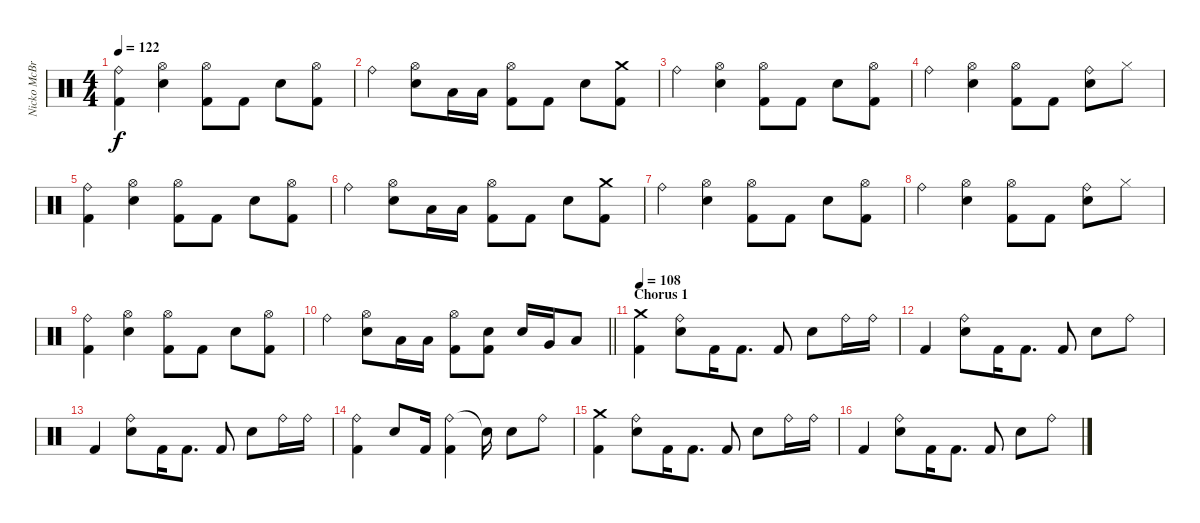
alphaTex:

\track ("Nicko McBrain" "Nicko McBr") {instrument percussion}
\staff {score}
\articulation defaults
\ts (4 4)
\tempo 122
\clef neutral
\ks c
("Ride (bell)" "Kick (hit) 2").4{dy f} ("Hi-Hat (open)" "Electric Snare (hit)").4 ("Hi-Hat (open)" "Kick (hit) 2").8 "Kick (hit) 2".8 "Electric Snare (hit)".8 ("Hi-Hat (open)" "Kick (hit) 2").8 |
"Ride (bell)".4 ("Hi-Hat (open)" "Electric Snare (hit)").8 "Low Tom (hit)".16 "Low Tom (hit)".16 ("Hi-Hat (open)" "Kick (hit) 2").8 "Kick (hit) 2".8 "Electric Snare (hit)".8 ("Crash medium (hit)" "Kick (hit) 2").8 |
"Ride (bell)".4 ("Hi-Hat (open)" "Electric Snare (hit)").4 ("Hi-Hat (open)" "Kick (hit) 2").8 "Kick (hit) 2".8 "Electric Snare (hit)".8 ("Hi-Hat (open)" "Kick (hit) 2").8 |
"Ride (bell)".4 ("Hi-Hat (open)" "Electric Snare (hit)").4 ("Hi-Hat (open)" "Kick (hit) 2").8 "Kick (hit) 2".8 ("Ride (bell)" "Electric Snare (hit)").8 "Hi-Hat (closed)".8 |
("Ride (bell)" "Kick (hit) 2").4 ("Hi-Hat (open)" "Electric Snare (hit)").4 ("Hi-Hat (open)" "Kick (hit) 2").8 "Kick (hit) 2".8 "Electric Snare (hit)".8 ("Hi-Hat (open)" "Kick (hit) 2").8 |
"Ride (bell)".4 ("Hi-Hat (open)" "Electric Snare (hit)").8 "Low Tom (hit)".16 "Low Tom (hit)".16 ("Hi-Hat (open)" "Kick (hit) 2").8 "Kick (hit) 2".8 "Electric Snare (hit)".8 ("Crash medium (hit)" "Kick (hit) 2").8 |
"Ride (bell)".4 ("Hi-Hat (open)" "Electric Snare (hit)").4 ("Hi-Hat (open)" "Kick (hit) 2").8 "Kick (hit) 2".8 "Electric Snare (hit)".8 ("Hi-Hat (open)" "Kick (hit) 2").8 |
"Ride (bell)".4 ("Hi-Hat (open)" "Electric Snare (hit)").4 ("Hi-Hat (open)" "Kick (hit) 2").8 "Kick (hit) 2".8 ("Ride (bell)" "Electric Snare (hit)").8 "Hi-Hat (closed)".8 |
("Ride (bell)" "Kick (hit) 2").4 ("Hi-Hat (open)" "Electric Snare (hit)").4 ("Hi-Hat (open)" "Kick (hit) 2").8 "Kick (hit) 2".8 "Electric Snare (hit)".8 ("Hi-Hat (open)" "Kick (hit) 2").8 |
\barLineRight lightlight "Ride (bell)".4
("Hi-Hat (open)" "Electric Snare (hit)").8 "Low Tom (hit)".16 "Low Tom (hit)".16 ("Hi-Hat (open)" "Kick (hit) 2").8 ("Electric Snare (hit)" "Kick (hit) 2").8 "Electric Snare (hit)".16 "Very Low Tom (hit)".16 "Low Floor Tom (hit)".8 |
\section ("" "Chorus 1")
\tempo 108
("Crash medium (hit)" "Kick (hit) 2").4 ("Ride (bell)" "Electric Snare (hit)").8 "Kick (hit) 2".16 "Kick (hit) 2".8{d} "Kick (hit) 2".8 "Electric Snare (hit)".8 "Ride (bell)".16 "Ride (bell)".16 |
"Kick (hit) 2".4 ("Ride (bell)" "Electric Snare (hit)").8 "Kick (hit) 2".16 "Kick (hit) 2".8{d} "Kick (hit) 2".8 "Electric Snare (hit)".8 "Ride (bell)".8 |
"Kick (hit) 2".4 ("Ride (bell)" "Electric Snare (hit)").8 "Kick (hit) 2".16 "Kick (hit) 2".8{d} "Kick (hit) 2".8 "Electric Snare (hit)".8 "Ride (bell)".16 "Ride (bell)".16 |
("Ride (bell)" "Kick (hit) 2").4 "Electric Snare (hit)".8 "Kick (hit) 2".16 ("Ride (bell)" "Kick (hit) 2").4 "Snare (hit)"{t}.16 "Electric Snare (hit)".8 "Ride (bell)".8 |
("Crash medium (hit)" "Kick (hit) 2").4 ("Ride (bell)" "Electric Snare (hit)").8 "Kick (hit) 2".16 "Kick (hit) 2".8{d} "Kick (hit) 2".8 "Electric Snare (hit)".8 "Ride (bell)".16 "Ride (bell)".16 |
"Kick (hit) 2".4 ("Ride (bell)" "Electric Snare (hit)").8 "Kick (hit) 2".16 "Kick (hit) 2".8{d} "Kick (hit) 2".8 "Electric Snare (hit)".8 "Ride (bell)".8
